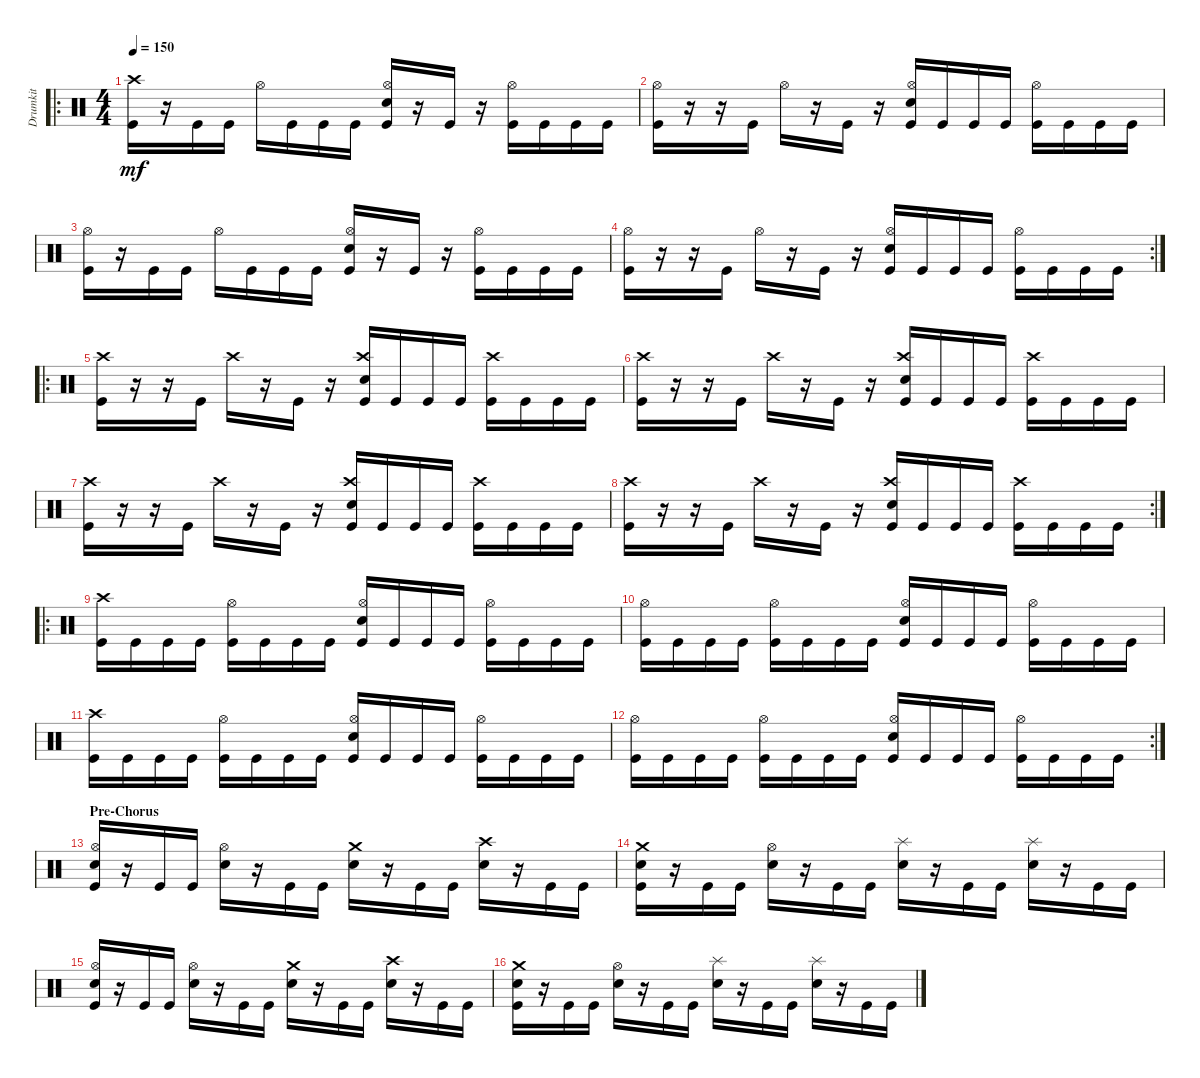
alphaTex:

\track ("Drumkit" "Drumkit") {instrument percussion}
\staff {score}
\articulation defaults
\ro
\ts (4 4)
\tempo 150
\clef neutral
\ks c
("Kick (hit)" "Crash high (hit)").16{dy mf} r.16 "Kick (hit)".16 "Kick (hit)".16 "Hi-Hat (open)".16 "Kick (hit)".16 "Kick (hit)".16 "Kick (hit)".16 ("Kick (hit)" "Snare (hit) 2" "Hi-Hat (open)").16 r.16 "Kick (hit)".16 r.16 ("Kick (hit)" "Hi-Hat (open)").16 "Kick (hit)".16 "Kick (hit)".16 "Kick (hit)".16 |
("Kick (hit)" "Hi-Hat (open)").16 r.16 r.16 "Kick (hit)".16 "Hi-Hat (open)".16 r.16 "Kick (hit)".16 r.16 ("Snare (hit) 2" "Kick (hit)" "Hi-Hat (open)").16 "Kick (hit)".16 "Kick (hit)".16 "Kick (hit)".16 ("Kick (hit)" "Hi-Hat (open)").16 "Kick (hit)".16 "Kick (hit)".16 "Kick (hit)".16 |
("Kick (hit)" "Hi-Hat (open)").16 r.16 "Kick (hit)".16 "Kick (hit)".16 "Hi-Hat (open)".16 "Kick (hit)".16 "Kick (hit)".16 "Kick (hit)".16 ("Kick (hit)" "Snare (hit) 2" "Hi-Hat (open)").16 r.16 "Kick (hit)".16 r.16 ("Kick (hit)" "Hi-Hat (open)").16 "Kick (hit)".16 "Kick (hit)".16 "Kick (hit)".16 |
\rc 2
("Kick (hit)" "Hi-Hat (open)").16 r.16 r.16 "Kick (hit)".16 "Hi-Hat (open)".16 r.16 "Kick (hit)".16 r.16 ("Snare (hit) 2" "Kick (hit)" "Hi-Hat (open)").16 "Kick (hit)".16 "Kick (hit)".16 "Kick (hit)".16 ("Kick (hit)" "Hi-Hat (open)").16 "Kick (hit)".16 "Kick (hit)".16 "Kick (hit)".16 |
\ro
("Kick (hit)" "Crash high (hit)").16 r.16 r.16 "Kick (hit)".16 "Crash high (hit)".16 r.16 "Kick (hit)".16 r.16 ("Snare (hit) 2" "Kick (hit)" "Crash high (hit)").16 "Kick (hit)".16 "Kick (hit)".16 "Kick (hit)".16 ("Crash high (hit)" "Kick (hit)").16 "Kick (hit)".16 "Kick (hit)".16 "Kick (hit)".16 |
("Kick (hit)" "Crash high (hit)").16 r.16 r.16 "Kick (hit)".16 "Crash high (hit)".16 r.16 "Kick (hit)".16 r.16 ("Snare (hit) 2" "Kick (hit)" "Crash high (hit)").16 "Kick (hit)".16 "Kick (hit)".16 "Kick (hit)".16 ("Crash high (hit)" "Kick (hit)").16 "Kick (hit)".16 "Kick (hit)".16 "Kick (hit)".16 |
("Kick (hit)" "Crash high (hit)").16 r.16 r.16 "Kick (hit)".16 "Crash high (hit)".16 r.16 "Kick (hit)".16 r.16 ("Snare (hit) 2" "Kick (hit)" "Crash high (hit)").16 "Kick (hit)".16 "Kick (hit)".16 "Kick (hit)".16 ("Crash high (hit)" "Kick (hit)").16 "Kick (hit)".16 "Kick (hit)".16 "Kick (hit)".16 |
\rc 2
("Kick (hit)" "Crash high (hit)").16 r.16 r.16 "Kick (hit)".16 "Crash high (hit)".16 r.16 "Kick (hit)".16 r.16 ("Snare (hit) 2" "Kick (hit)" "Crash high (hit)").16 "Kick (hit)".16 "Kick (hit)".16 "Kick (hit)".16 ("Crash high (hit)" "Kick (hit)").16 "Kick (hit)".16 "Kick (hit)".16 "Kick (hit)".16 |
\ro
("Kick (hit)" "Crash high (hit)").16 "Kick (hit)".16 "Kick (hit)".16 "Kick (hit)".16 ("Kick (hit)" "Hi-Hat (open)").16 "Kick (hit)".16 "Kick (hit)".16 "Kick (hit)".16 ("Kick (hit)" "Hi-Hat (open)" "Snare (hit) 2").16 "Kick (hit)".16 "Kick (hit)".16 "Kick (hit)".16 ("Kick (hit)" "Hi-Hat (open)").16 "Kick (hit)".16 "Kick (hit)".16 "Kick (hit)".16 |
("Kick (hit)" "Hi-Hat (open)").16 "Kick (hit)".16 "Kick (hit)".16 "Kick (hit)".16 ("Kick (hit)" "Hi-Hat (open)").16 "Kick (hit)".16 "Kick (hit)".16 "Kick (hit)".16 ("Kick (hit)" "Hi-Hat (open)" "Snare (hit) 2").16 "Kick (hit)".16 "Kick (hit)".16 "Kick (hit)".16 ("Kick (hit)" "Hi-Hat (open)").16 "Kick (hit)".16 "Kick (hit)".16 "Kick (hit)".16 |
("Kick (hit)" "Crash high (hit)").16 "Kick (hit)".16 "Kick (hit)".16 "Kick (hit)".16 ("Kick (hit)" "Hi-Hat (open)").16 "Kick (hit)".16 "Kick (hit)".16 "Kick (hit)".16 ("Kick (hit)" "Hi-Hat (open)" "Snare (hit) 2").16 "Kick (hit)".16 "Kick (hit)".16 "Kick (hit)".16 ("Kick (hit)" "Hi-Hat (open)").16 "Kick (hit)".16 "Kick (hit)".16 "Kick (hit)".16 |
\rc 2
("Kick (hit)" "Hi-Hat (open)").16 "Kick (hit)".16 "Kick (hit)".16 "Kick (hit)".16 ("Kick (hit)" "Hi-Hat (open)").16 "Kick (hit)".16 "Kick (hit)".16 "Kick (hit)".16 ("Kick (hit)" "Hi-Hat (open)" "Snare (hit) 2").16 "Kick (hit)".16 "Kick (hit)".16 "Kick (hit)".16 ("Kick (hit)" "Hi-Hat (open)").16 "Kick (hit)".16 "Kick (hit)".16 "Kick (hit)".16 |
\section ("" "Pre-Chorus")
("Snare (hit) 2" "Kick (hit)" "Hi-Hat (open)").16 r.16 "Kick (hit)".16 "Kick (hit)".16 ("Snare (hit) 2" "Hi-Hat (open)").16 r.16 "Kick (hit)".16 "Kick (hit)".16 ("Snare (hit) 2" "Crash medium (hit)").16 r.16 "Kick (hit)".16 "Kick (hit)".16 ("Snare (hit) 2" "Crash high (hit)").16 r.16 "Kick (hit)".16 "Kick (hit)".16 |
("Snare (hit) 2" "Kick (hit)" "Crash medium (hit)").16 r.16 "Kick (hit)".16 "Kick (hit)".16 ("Snare (hit) 2" "Hi-Hat (open)").16 r.16 "Kick (hit)".16 "Kick (hit)".16 ("Snare (hit) 2" "Splash (hit)").16 r.16 "Kick (hit)".16 "Kick (hit)".16 ("Snare (hit) 2" "Splash (hit)").16 r.16 "Kick (hit)".16 "Kick (hit)".16 |
("Snare (hit) 2" "Kick (hit)" "Hi-Hat (open)").16 r.16 "Kick (hit)".16 "Kick (hit)".16 ("Snare (hit) 2" "Hi-Hat (open)").16 r.16 "Kick (hit)".16 "Kick (hit)".16 ("Snare (hit) 2" "Crash medium (hit)").16 r.16 "Kick (hit)".16 "Kick (hit)".16 ("Snare (hit) 2" "Crash high (hit)").16 r.16 "Kick (hit)".16 "Kick (hit)".16 |
("Snare (hit) 2" "Kick (hit)" "Crash medium (hit)").16 r.16 "Kick (hit)".16 "Kick (hit)".16 ("Snare (hit) 2" "Hi-Hat (open)").16 r.16 "Kick (hit)".16 "Kick (hit)".16 ("Snare (hit) 2" "Splash (hit)").16 r.16 "Kick (hit)".16 "Kick (hit)".16 ("Snare (hit) 2" "Splash (hit)").16 r.16 "Kick (hit)".16 "Kick (hit)".16
